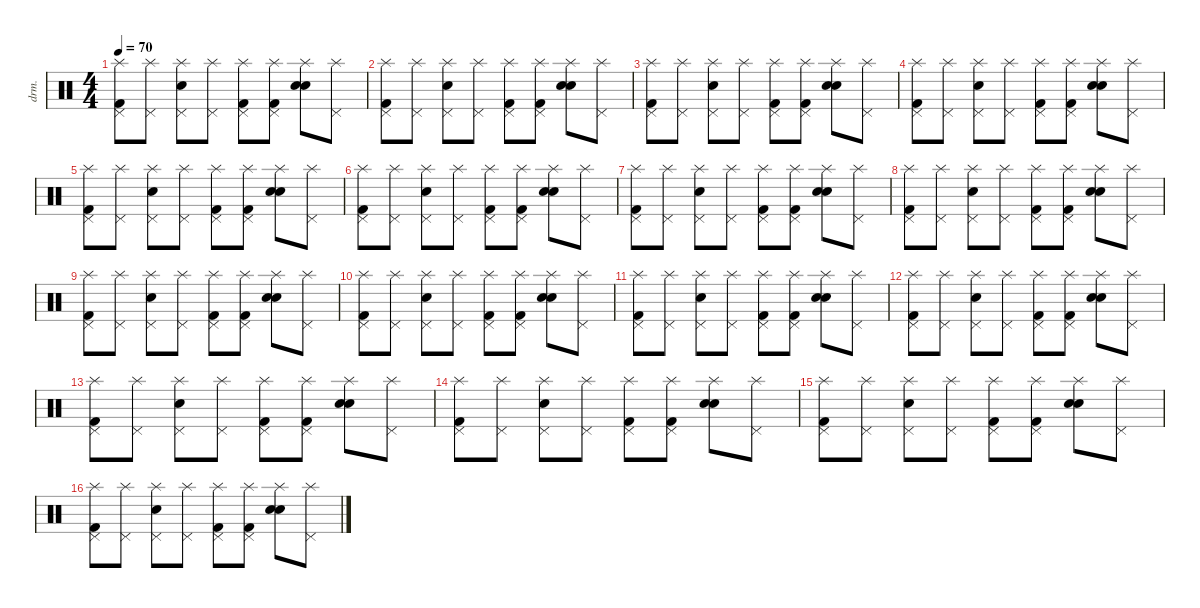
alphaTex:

\defaultSystemsLayout 4
\hideDynamics
\bracketExtendMode nobrackets
\otherSystemsTrackNameOrientation horizontal
\track ("Drums" "drm.") {defaultSystemsLayout 4 instrument percussion}
\staff {score}
\articulation defaults
\ts (4 4)
\tempo 70
\clef neutral
\ks c
("Splash (hit)" "Pedal Hi-Hat (hit)" "Kick (hit) 2").8{dy mf beam Down} ("Splash (hit)" "Pedal Hi-Hat (hit)").8{beam Down} ("Splash (hit)" "Pedal Hi-Hat (hit)" "Snare (hit) 2").8{beam Down} ("Splash (hit)" "Pedal Hi-Hat (hit)").8{beam Down} ("Splash (hit)" "Pedal Hi-Hat (hit)" "Kick (hit) 2").8{beam Down} ("Splash (hit)" "Pedal Hi-Hat (hit)" "Kick (hit) 2").8{beam Down} ("Splash (hit)" "Snare (hit) 2" "Snare (hit) 2").8{beam Down} ("Splash (hit)" "Pedal Hi-Hat (hit)").8{beam Down} |
("Splash (hit)" "Pedal Hi-Hat (hit)" "Kick (hit) 2").8{beam Down} ("Splash (hit)" "Pedal Hi-Hat (hit)").8{beam Down} ("Splash (hit)" "Pedal Hi-Hat (hit)" "Snare (hit) 2").8{beam Down} ("Splash (hit)" "Pedal Hi-Hat (hit)").8{beam Down} ("Splash (hit)" "Pedal Hi-Hat (hit)" "Kick (hit) 2").8{beam Down} ("Splash (hit)" "Pedal Hi-Hat (hit)" "Kick (hit) 2").8{beam Down} ("Splash (hit)" "Snare (hit) 2" "Snare (hit) 2").8{beam Down} ("Splash (hit)" "Pedal Hi-Hat (hit)").8{beam Down} |
("Splash (hit)" "Pedal Hi-Hat (hit)" "Kick (hit) 2").8{beam Down} ("Splash (hit)" "Pedal Hi-Hat (hit)").8{beam Down} ("Splash (hit)" "Pedal Hi-Hat (hit)" "Snare (hit) 2").8{beam Down} ("Splash (hit)" "Pedal Hi-Hat (hit)").8{beam Down} ("Splash (hit)" "Pedal Hi-Hat (hit)" "Kick (hit) 2").8{beam Down} ("Splash (hit)" "Pedal Hi-Hat (hit)" "Kick (hit) 2").8{beam Down} ("Splash (hit)" "Snare (hit) 2" "Snare (hit) 2").8{beam Down} ("Splash (hit)" "Pedal Hi-Hat (hit)").8{beam Down} |
("Splash (hit)" "Pedal Hi-Hat (hit)" "Kick (hit) 2").8{beam Down} ("Splash (hit)" "Pedal Hi-Hat (hit)").8{beam Down} ("Splash (hit)" "Pedal Hi-Hat (hit)" "Snare (hit) 2").8{beam Down} ("Splash (hit)" "Pedal Hi-Hat (hit)").8{beam Down} ("Splash (hit)" "Pedal Hi-Hat (hit)" "Kick (hit) 2").8{beam Down} ("Splash (hit)" "Pedal Hi-Hat (hit)" "Kick (hit) 2").8{beam Down} ("Splash (hit)" "Snare (hit) 2" "Snare (hit) 2").8{beam Down} ("Splash (hit)" "Pedal Hi-Hat (hit)").8{beam Down} |
("Splash (hit)" "Pedal Hi-Hat (hit)" "Kick (hit) 2").8{beam Down} ("Splash (hit)" "Pedal Hi-Hat (hit)").8{beam Down} ("Splash (hit)" "Pedal Hi-Hat (hit)" "Snare (hit) 2").8{beam Down} ("Splash (hit)" "Pedal Hi-Hat (hit)").8{beam Down} ("Splash (hit)" "Pedal Hi-Hat (hit)" "Kick (hit) 2").8{beam Down} ("Splash (hit)" "Pedal Hi-Hat (hit)" "Kick (hit) 2").8{beam Down} ("Splash (hit)" "Snare (hit) 2" "Snare (hit) 2").8{beam Down} ("Splash (hit)" "Pedal Hi-Hat (hit)").8{beam Down} |
("Splash (hit)" "Pedal Hi-Hat (hit)" "Kick (hit) 2").8{beam Down} ("Splash (hit)" "Pedal Hi-Hat (hit)").8{beam Down} ("Splash (hit)" "Pedal Hi-Hat (hit)" "Snare (hit) 2").8{beam Down} ("Splash (hit)" "Pedal Hi-Hat (hit)").8{beam Down} ("Splash (hit)" "Pedal Hi-Hat (hit)" "Kick (hit) 2").8{beam Down} ("Splash (hit)" "Pedal Hi-Hat (hit)" "Kick (hit) 2").8{beam Down} ("Splash (hit)" "Snare (hit) 2" "Snare (hit) 2").8{beam Down} ("Splash (hit)" "Pedal Hi-Hat (hit)").8{beam Down} |
("Splash (hit)" "Pedal Hi-Hat (hit)" "Kick (hit) 2").8{beam Down} ("Splash (hit)" "Pedal Hi-Hat (hit)").8{beam Down} ("Splash (hit)" "Pedal Hi-Hat (hit)" "Snare (hit) 2").8{beam Down} ("Splash (hit)" "Pedal Hi-Hat (hit)").8{beam Down} ("Splash (hit)" "Pedal Hi-Hat (hit)" "Kick (hit) 2").8{beam Down} ("Splash (hit)" "Pedal Hi-Hat (hit)" "Kick (hit) 2").8{beam Down} ("Splash (hit)" "Snare (hit) 2" "Snare (hit) 2").8{beam Down} ("Splash (hit)" "Pedal Hi-Hat (hit)").8{beam Down} |
("Splash (hit)" "Pedal Hi-Hat (hit)" "Kick (hit) 2").8{beam Down} ("Splash (hit)" "Pedal Hi-Hat (hit)").8{beam Down} ("Splash (hit)" "Pedal Hi-Hat (hit)" "Snare (hit) 2").8{beam Down} ("Splash (hit)" "Pedal Hi-Hat (hit)").8{beam Down} ("Splash (hit)" "Pedal Hi-Hat (hit)" "Kick (hit) 2").8{beam Down} ("Splash (hit)" "Pedal Hi-Hat (hit)" "Kick (hit) 2").8{beam Down} ("Splash (hit)" "Snare (hit) 2" "Snare (hit) 2").8{beam Down} ("Splash (hit)" "Pedal Hi-Hat (hit)").8{beam Down} |
("Splash (hit)" "Pedal Hi-Hat (hit)" "Kick (hit) 2").8{beam Down} ("Splash (hit)" "Pedal Hi-Hat (hit)").8{beam Down} ("Splash (hit)" "Pedal Hi-Hat (hit)" "Snare (hit) 2").8{beam Down} ("Splash (hit)" "Pedal Hi-Hat (hit)").8{beam Down} ("Splash (hit)" "Pedal Hi-Hat (hit)" "Kick (hit) 2").8{beam Down} ("Splash (hit)" "Pedal Hi-Hat (hit)" "Kick (hit) 2").8{beam Down} ("Splash (hit)" "Snare (hit) 2" "Snare (hit) 2").8{beam Down} ("Splash (hit)" "Pedal Hi-Hat (hit)").8{beam Down} |
("Splash (hit)" "Pedal Hi-Hat (hit)" "Kick (hit) 2").8{beam Down} ("Splash (hit)" "Pedal Hi-Hat (hit)").8{beam Down} ("Splash (hit)" "Pedal Hi-Hat (hit)" "Snare (hit) 2").8{beam Down} ("Splash (hit)" "Pedal Hi-Hat (hit)").8{beam Down} ("Splash (hit)" "Pedal Hi-Hat (hit)" "Kick (hit) 2").8{beam Down} ("Splash (hit)" "Pedal Hi-Hat (hit)" "Kick (hit) 2").8{beam Down} ("Splash (hit)" "Snare (hit) 2" "Snare (hit) 2").8{beam Down} ("Splash (hit)" "Pedal Hi-Hat (hit)").8{beam Down} |
("Splash (hit)" "Pedal Hi-Hat (hit)" "Kick (hit) 2").8{beam Down} ("Splash (hit)" "Pedal Hi-Hat (hit)").8{beam Down} ("Splash (hit)" "Pedal Hi-Hat (hit)" "Snare (hit) 2").8{beam Down} ("Splash (hit)" "Pedal Hi-Hat (hit)").8{beam Down} ("Splash (hit)" "Pedal Hi-Hat (hit)" "Kick (hit) 2").8{beam Down} ("Splash (hit)" "Pedal Hi-Hat (hit)" "Kick (hit) 2").8{beam Down} ("Splash (hit)" "Snare (hit) 2" "Snare (hit) 2").8{beam Down} ("Splash (hit)" "Pedal Hi-Hat (hit)").8{beam Down} |
("Splash (hit)" "Pedal Hi-Hat (hit)" "Kick (hit) 2").8{beam Down} ("Splash (hit)" "Pedal Hi-Hat (hit)").8{beam Down} ("Splash (hit)" "Pedal Hi-Hat (hit)" "Snare (hit) 2").8{beam Down} ("Splash (hit)" "Pedal Hi-Hat (hit)").8{beam Down} ("Splash (hit)" "Pedal Hi-Hat (hit)" "Kick (hit) 2").8{beam Down} ("Splash (hit)" "Pedal Hi-Hat (hit)" "Kick (hit) 2").8{beam Down} ("Splash (hit)" "Snare (hit) 2" "Snare (hit) 2").8{beam Down} ("Splash (hit)" "Pedal Hi-Hat (hit)").8{beam Down} |
("Splash (hit)" "Pedal Hi-Hat (hit)" "Kick (hit) 2").8{beam Down} ("Splash (hit)" "Pedal Hi-Hat (hit)").8{beam Down} ("Splash (hit)" "Pedal Hi-Hat (hit)" "Snare (hit) 2").8{beam Down} ("Splash (hit)" "Pedal Hi-Hat (hit)").8{beam Down} ("Splash (hit)" "Pedal Hi-Hat (hit)" "Kick (hit) 2").8{beam Down} ("Splash (hit)" "Pedal Hi-Hat (hit)" "Kick (hit) 2").8{beam Down} ("Splash (hit)" "Snare (hit) 2" "Snare (hit) 2").8{beam Down} ("Splash (hit)" "Pedal Hi-Hat (hit)").8{beam Down} |
("Splash (hit)" "Pedal Hi-Hat (hit)" "Kick (hit) 2").8{beam Down} ("Splash (hit)" "Pedal Hi-Hat (hit)").8{beam Down} ("Splash (hit)" "Pedal Hi-Hat (hit)" "Snare (hit) 2").8{beam Down} ("Splash (hit)" "Pedal Hi-Hat (hit)").8{beam Down} ("Splash (hit)" "Pedal Hi-Hat (hit)" "Kick (hit) 2").8{beam Down} ("Splash (hit)" "Pedal Hi-Hat (hit)" "Kick (hit) 2").8{beam Down} ("Splash (hit)" "Snare (hit) 2" "Snare (hit) 2").8{beam Down} ("Splash (hit)" "Pedal Hi-Hat (hit)").8{beam Down} |
("Splash (hit)" "Pedal Hi-Hat (hit)" "Kick (hit) 2").8{beam Down} ("Splash (hit)" "Pedal Hi-Hat (hit)").8{beam Down} ("Splash (hit)" "Pedal Hi-Hat (hit)" "Snare (hit) 2").8{beam Down} ("Splash (hit)" "Pedal Hi-Hat (hit)").8{beam Down} ("Splash (hit)" "Pedal Hi-Hat (hit)" "Kick (hit) 2").8{beam Down} ("Splash (hit)" "Pedal Hi-Hat (hit)" "Kick (hit) 2").8{beam Down} ("Splash (hit)" "Snare (hit) 2" "Snare (hit) 2").8{beam Down} ("Splash (hit)" "Pedal Hi-Hat (hit)").8{beam Down} |
("Splash (hit)" "Pedal Hi-Hat (hit)" "Kick (hit) 2").8{beam Down} ("Splash (hit)" "Pedal Hi-Hat (hit)").8{beam Down} ("Splash (hit)" "Pedal Hi-Hat (hit)" "Snare (hit) 2").8{beam Down} ("Splash (hit)" "Pedal Hi-Hat (hit)").8{beam Down} ("Splash (hit)" "Pedal Hi-Hat (hit)" "Kick (hit) 2").8{beam Down} ("Splash (hit)" "Pedal Hi-Hat (hit)" "Kick (hit) 2").8{beam Down} ("Splash (hit)" "Snare (hit) 2" "Snare (hit) 2").8{beam Down} ("Splash (hit)" "Pedal Hi-Hat (hit)").8{beam Down}
